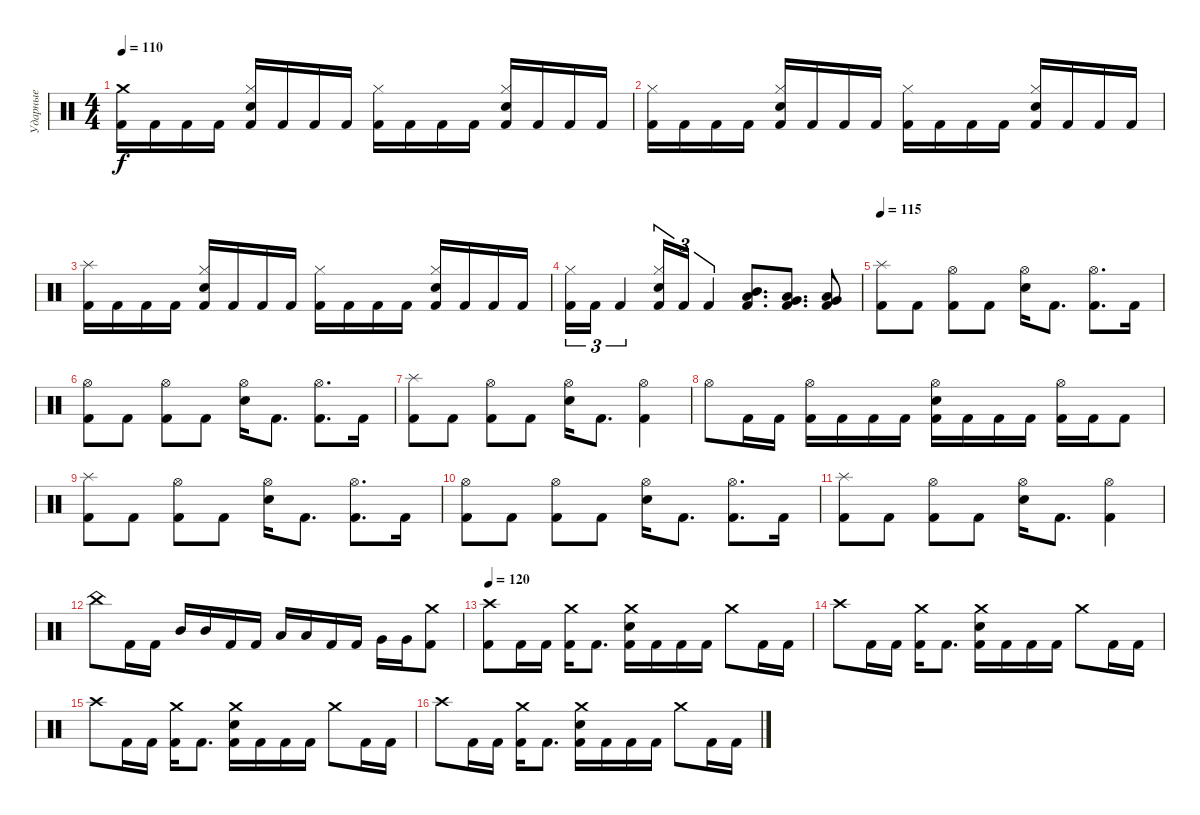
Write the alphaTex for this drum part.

\track ("Ударные" "Ударные") {instrument percussion}
\staff {score}
\articulation defaults
\ts (4 4)
\tempo 110
\clef neutral
\ks c
("Crash medium (hit)" "Kick (hit) 2").16{dy f} "Kick (hit) 2".16 "Kick (hit) 2".16 "Kick (hit) 2".16 ("Hi-Hat (closed)" "Electric Snare (hit)" "Kick (hit) 2").16 "Kick (hit) 2".16 "Kick (hit) 2".16 "Kick (hit) 2".16 ("Hi-Hat (closed)" "Kick (hit) 2").16 "Kick (hit) 2".16 "Kick (hit) 2".16 "Kick (hit) 2".16 ("Hi-Hat (closed)" "Electric Snare (hit)" "Kick (hit) 2").16 "Kick (hit) 2".16 "Kick (hit) 2".16 "Kick (hit) 2".16 |
("Hi-Hat (closed)" "Kick (hit) 2").16 "Kick (hit) 2".16 "Kick (hit) 2".16 "Kick (hit) 2".16 ("Hi-Hat (closed)" "Electric Snare (hit)" "Kick (hit) 2").16 "Kick (hit) 2".16 "Kick (hit) 2".16 "Kick (hit) 2".16 ("Hi-Hat (closed)" "Kick (hit) 2").16 "Kick (hit) 2".16 "Kick (hit) 2".16 "Kick (hit) 2".16 ("Hi-Hat (closed)" "Electric Snare (hit)" "Kick (hit) 2").16 "Kick (hit) 2".16 "Kick (hit) 2".16 "Kick (hit) 2".16 |
("Splash (hit)" "Kick (hit) 2").16 "Kick (hit) 2".16 "Kick (hit) 2".16 "Kick (hit) 2".16 ("Hi-Hat (closed)" "Electric Snare (hit)" "Kick (hit) 2").16 "Kick (hit) 2".16 "Kick (hit) 2".16 "Kick (hit) 2".16 ("Hi-Hat (closed)" "Kick (hit) 2").16 "Kick (hit) 2".16 "Kick (hit) 2".16 "Kick (hit) 2".16 ("Hi-Hat (closed)" "Electric Snare (hit)" "Kick (hit) 2").16 "Kick (hit) 2".16 "Kick (hit) 2".16 "Kick (hit) 2".16 |
("Hi-Hat (closed)" "Kick (hit) 2").16{tu (3 2)} "Kick (hit) 2".16{tu (3 2)} "Kick (hit) 2".4{tu (3 2)} ("Hi-Hat (closed)" "Electric Snare (hit)" "Kick (hit) 2").16{tu (3 2)} "Kick (hit) 2".16{tu (3 2)} "Kick (hit) 2".4{tu (3 2)} ("Mid Tom (hit)" "Low Tom (hit)" "Kick (hit) 2").8{d} ("Very Low Tom (hit)" "Low Floor Tom (hit)" "Kick (hit) 2").8{d} ("Very Low Tom (hit)" "Low Floor Tom (hit)" "Kick (hit) 2").8 |
\tempo 115
("Splash (hit)" "Kick (hit) 2").8 "Kick (hit) 2".8 ("Hi-Hat (open)" "Kick (hit) 2").8 "Kick (hit) 2".8 ("Hi-Hat (open)" "Electric Snare (hit)").16 "Kick (hit) 2".8{d} ("Hi-Hat (open)" "Kick (hit) 2").8{d} "Kick (hit) 2".16 |
("Hi-Hat (open)" "Kick (hit) 2").8 "Kick (hit) 2".8 ("Hi-Hat (open)" "Kick (hit) 2").8 "Kick (hit) 2".8 ("Hi-Hat (open)" "Electric Snare (hit)").16 "Kick (hit) 2".8{d} ("Hi-Hat (open)" "Kick (hit) 2").8{d} "Kick (hit) 2".16 |
("Splash (hit)" "Kick (hit) 2").8 "Kick (hit) 2".8 ("Hi-Hat (open)" "Kick (hit) 2").8 "Kick (hit) 2".8 ("Hi-Hat (open)" "Electric Snare (hit)").16 "Kick (hit) 2".8{d} ("Hi-Hat (open)" "Kick (hit) 2").4 |
"Hi-Hat (open)".8 "Kick (hit) 2".16 "Kick (hit) 2".16 ("Hi-Hat (open)" "Kick (hit) 2").16 "Kick (hit) 2".16 "Kick (hit) 2".16 "Kick (hit) 2".16 ("Hi-Hat (open)" "Electric Snare (hit)" "Kick (hit) 2").16 "Kick (hit) 2".16 "Kick (hit) 2".16 "Kick (hit) 2".16 ("Hi-Hat (open)" "Kick (hit) 2").16 "Kick (hit) 2".16 "Kick (hit) 2".8 |
("Splash (hit)" "Kick (hit) 2").8 "Kick (hit) 2".8 ("Hi-Hat (open)" "Kick (hit) 2").8 "Kick (hit) 2".8 ("Hi-Hat (open)" "Electric Snare (hit)").16 "Kick (hit) 2".8{d} ("Hi-Hat (open)" "Kick (hit) 2").8{d} "Kick (hit) 2".16 |
("Hi-Hat (open)" "Kick (hit) 2").8 "Kick (hit) 2".8 ("Hi-Hat (open)" "Kick (hit) 2").8 "Kick (hit) 2".8 ("Hi-Hat (open)" "Electric Snare (hit)").16 "Kick (hit) 2".8{d} ("Hi-Hat (open)" "Kick (hit) 2").8{d} "Kick (hit) 2".16 |
("Splash (hit)" "Kick (hit) 2").8 "Kick (hit) 2".8 ("Hi-Hat (open)" "Kick (hit) 2").8 "Kick (hit) 2".8 ("Hi-Hat (open)" "Electric Snare (hit)").16 "Kick (hit) 2".8{d} ("Hi-Hat (open)" "Kick (hit) 2").4 |
"China (hit)".8 "Kick (hit) 2".16 "Kick (hit) 2".16 "Mid Tom (hit)".16 "Mid Tom (hit)".16 "Kick (hit) 2".16 "Kick (hit) 2".16 "Low Tom (hit)".16 "Low Tom (hit)".16 "Kick (hit) 2".16 "Kick (hit) 2".16 "Very Low Tom (hit)".16 "Very Low Tom (hit)".16 ("Crash medium (hit)" "Kick (hit) 2").8 |
\tempo 120
("Crash high (hit)" "Kick (hit) 2").8 "Kick (hit) 2".16 "Kick (hit) 2".16 ("Crash medium (hit)" "Kick (hit) 2").16 "Kick (hit) 2".8{d} ("Crash medium (hit)" "Electric Snare (hit)" "Kick (hit) 2").16 "Kick (hit) 2".16 "Kick (hit) 2".16 "Kick (hit) 2".16 "Crash medium (hit)".8 "Kick (hit) 2".16 "Kick (hit) 2".16 |
"Crash high (hit)".8 "Kick (hit) 2".16 "Kick (hit) 2".16 ("Crash medium (hit)" "Kick (hit) 2").16 "Kick (hit) 2".8{d} ("Crash medium (hit)" "Electric Snare (hit)" "Kick (hit) 2").16 "Kick (hit) 2".16 "Kick (hit) 2".16 "Kick (hit) 2".16 "Crash medium (hit)".8 "Kick (hit) 2".16 "Kick (hit) 2".16 |
"Crash high (hit)".8 "Kick (hit) 2".16 "Kick (hit) 2".16 ("Crash medium (hit)" "Kick (hit) 2").16 "Kick (hit) 2".8{d} ("Crash medium (hit)" "Electric Snare (hit)" "Kick (hit) 2").16 "Kick (hit) 2".16 "Kick (hit) 2".16 "Kick (hit) 2".16 "Crash medium (hit)".8 "Kick (hit) 2".16 "Kick (hit) 2".16 |
"Crash high (hit)".8 "Kick (hit) 2".16 "Kick (hit) 2".16 ("Crash medium (hit)" "Kick (hit) 2").16 "Kick (hit) 2".8{d} ("Crash medium (hit)" "Electric Snare (hit)" "Kick (hit) 2").16 "Kick (hit) 2".16 "Kick (hit) 2".16 "Kick (hit) 2".16 "Crash medium (hit)".8 "Kick (hit) 2".16 "Kick (hit) 2".16
